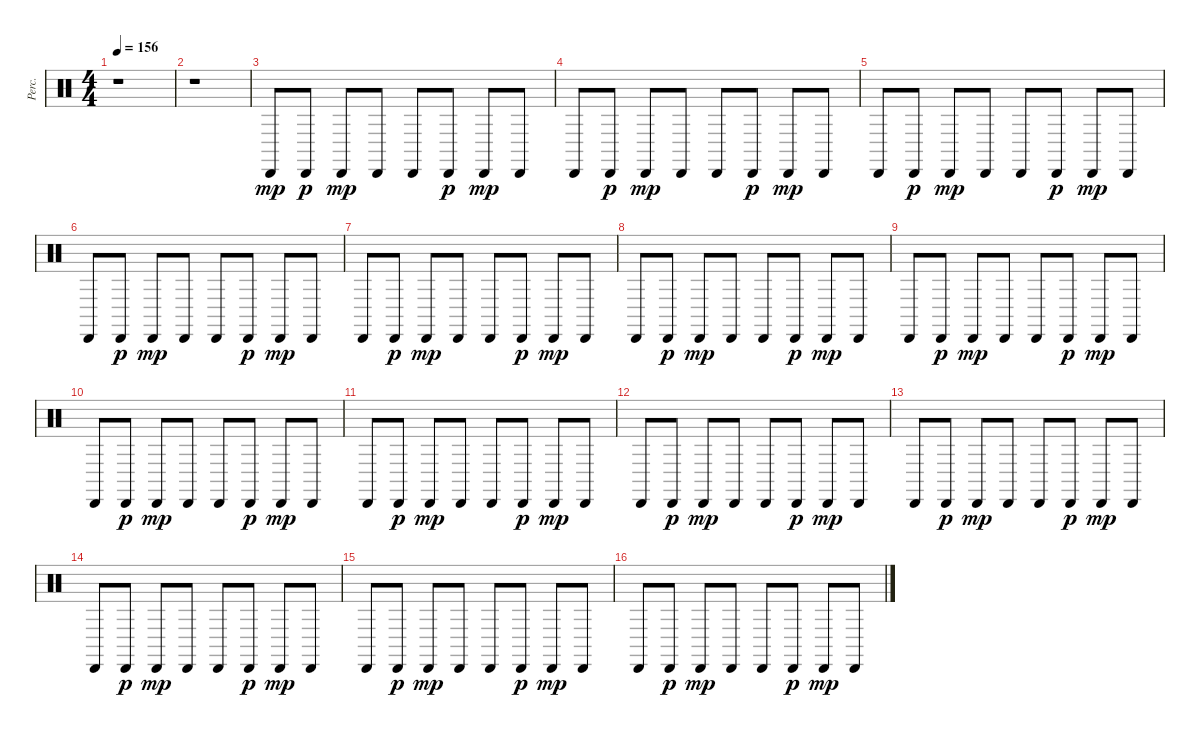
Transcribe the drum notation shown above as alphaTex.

\track ("Perc." "Perc.") {instrument percussion}
\staff {score}
\articulation defaults
\ts (4 4)
\tempo 156
\clef neutral
\ks c
r.1{dy mp} |
r.1 |
"Cabasa (hit)".8 "Cabasa (hit)".8{dy p} "Cabasa (hit)".8{dy mp} "Cabasa (hit)".8 "Cabasa (hit)".8 "Cabasa (hit)".8{dy p} "Cabasa (hit)".8{dy mp} "Cabasa (hit)".8 |
"Cabasa (hit)".8 "Cabasa (hit)".8{dy p} "Cabasa (hit)".8{dy mp} "Cabasa (hit)".8 "Cabasa (hit)".8 "Cabasa (hit)".8{dy p} "Cabasa (hit)".8{dy mp} "Cabasa (hit)".8 |
"Cabasa (hit)".8 "Cabasa (hit)".8{dy p} "Cabasa (hit)".8{dy mp} "Cabasa (hit)".8 "Cabasa (hit)".8 "Cabasa (hit)".8{dy p} "Cabasa (hit)".8{dy mp} "Cabasa (hit)".8 |
"Cabasa (hit)".8 "Cabasa (hit)".8{dy p} "Cabasa (hit)".8{dy mp} "Cabasa (hit)".8 "Cabasa (hit)".8 "Cabasa (hit)".8{dy p} "Cabasa (hit)".8{dy mp} "Cabasa (hit)".8 |
"Cabasa (hit)".8 "Cabasa (hit)".8{dy p} "Cabasa (hit)".8{dy mp} "Cabasa (hit)".8 "Cabasa (hit)".8 "Cabasa (hit)".8{dy p} "Cabasa (hit)".8{dy mp} "Cabasa (hit)".8 |
"Cabasa (hit)".8 "Cabasa (hit)".8{dy p} "Cabasa (hit)".8{dy mp} "Cabasa (hit)".8 "Cabasa (hit)".8 "Cabasa (hit)".8{dy p} "Cabasa (hit)".8{dy mp} "Cabasa (hit)".8 |
"Cabasa (hit)".8 "Cabasa (hit)".8{dy p} "Cabasa (hit)".8{dy mp} "Cabasa (hit)".8 "Cabasa (hit)".8 "Cabasa (hit)".8{dy p} "Cabasa (hit)".8{dy mp} "Cabasa (hit)".8 |
"Cabasa (hit)".8 "Cabasa (hit)".8{dy p} "Cabasa (hit)".8{dy mp} "Cabasa (hit)".8 "Cabasa (hit)".8 "Cabasa (hit)".8{dy p} "Cabasa (hit)".8{dy mp} "Cabasa (hit)".8 |
"Cabasa (hit)".8 "Cabasa (hit)".8{dy p} "Cabasa (hit)".8{dy mp} "Cabasa (hit)".8 "Cabasa (hit)".8 "Cabasa (hit)".8{dy p} "Cabasa (hit)".8{dy mp} "Cabasa (hit)".8 |
"Cabasa (hit)".8 "Cabasa (hit)".8{dy p} "Cabasa (hit)".8{dy mp} "Cabasa (hit)".8 "Cabasa (hit)".8 "Cabasa (hit)".8{dy p} "Cabasa (hit)".8{dy mp} "Cabasa (hit)".8 |
"Cabasa (hit)".8 "Cabasa (hit)".8{dy p} "Cabasa (hit)".8{dy mp} "Cabasa (hit)".8 "Cabasa (hit)".8 "Cabasa (hit)".8{dy p} "Cabasa (hit)".8{dy mp} "Cabasa (hit)".8 |
"Cabasa (hit)".8 "Cabasa (hit)".8{dy p} "Cabasa (hit)".8{dy mp} "Cabasa (hit)".8 "Cabasa (hit)".8 "Cabasa (hit)".8{dy p} "Cabasa (hit)".8{dy mp} "Cabasa (hit)".8 |
"Cabasa (hit)".8 "Cabasa (hit)".8{dy p} "Cabasa (hit)".8{dy mp} "Cabasa (hit)".8 "Cabasa (hit)".8 "Cabasa (hit)".8{dy p} "Cabasa (hit)".8{dy mp} "Cabasa (hit)".8 |
"Cabasa (hit)".8 "Cabasa (hit)".8{dy p} "Cabasa (hit)".8{dy mp} "Cabasa (hit)".8 "Cabasa (hit)".8 "Cabasa (hit)".8{dy p} "Cabasa (hit)".8{dy mp} "Cabasa (hit)".8
